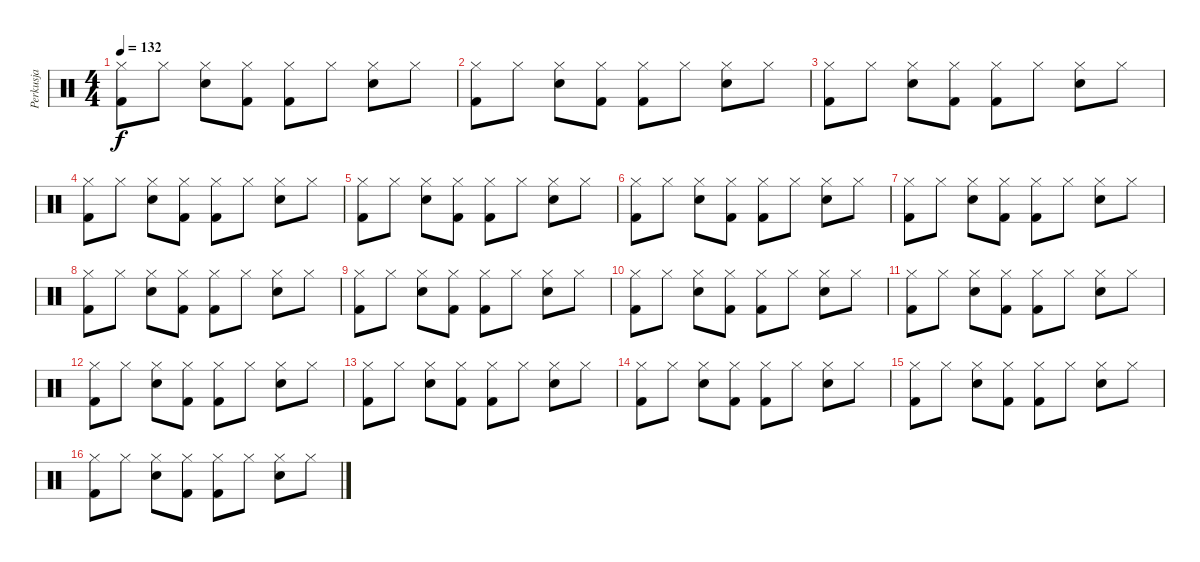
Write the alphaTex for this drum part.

\track ("Perkusja" "Perkusja") {instrument percussion}
\staff {score}
\articulation defaults
\ts (4 4)
\tempo 132
\clef neutral
\ks c
("Kick (hit) 2" "Hi-Hat (closed)").8{dy f} "Hi-Hat (closed)".8 ("Snare (hit) 2" "Hi-Hat (closed)").8 ("Kick (hit) 2" "Hi-Hat (closed)").8 ("Kick (hit) 2" "Hi-Hat (closed)").8 "Hi-Hat (closed)".8 ("Snare (hit) 2" "Hi-Hat (closed)").8 "Hi-Hat (closed)".8 |
("Kick (hit) 2" "Hi-Hat (closed)").8 "Hi-Hat (closed)".8 ("Snare (hit) 2" "Hi-Hat (closed)").8 ("Kick (hit) 2" "Hi-Hat (closed)").8 ("Kick (hit) 2" "Hi-Hat (closed)").8 "Hi-Hat (closed)".8 ("Snare (hit) 2" "Hi-Hat (closed)").8 "Hi-Hat (closed)".8 |
("Kick (hit) 2" "Hi-Hat (closed)").8 "Hi-Hat (closed)".8 ("Snare (hit) 2" "Hi-Hat (closed)").8 ("Kick (hit) 2" "Hi-Hat (closed)").8 ("Kick (hit) 2" "Hi-Hat (closed)").8 "Hi-Hat (closed)".8 ("Snare (hit) 2" "Hi-Hat (closed)").8 "Hi-Hat (closed)".8 |
("Kick (hit) 2" "Hi-Hat (closed)").8 "Hi-Hat (closed)".8 ("Snare (hit) 2" "Hi-Hat (closed)").8 ("Kick (hit) 2" "Hi-Hat (closed)").8 ("Kick (hit) 2" "Hi-Hat (closed)").8 "Hi-Hat (closed)".8 ("Snare (hit) 2" "Hi-Hat (closed)").8 "Hi-Hat (closed)".8 |
("Kick (hit) 2" "Hi-Hat (closed)").8 "Hi-Hat (closed)".8 ("Snare (hit) 2" "Hi-Hat (closed)").8 ("Kick (hit) 2" "Hi-Hat (closed)").8 ("Kick (hit) 2" "Hi-Hat (closed)").8 "Hi-Hat (closed)".8 ("Snare (hit) 2" "Hi-Hat (closed)").8 "Hi-Hat (closed)".8 |
("Kick (hit) 2" "Hi-Hat (closed)").8 "Hi-Hat (closed)".8 ("Snare (hit) 2" "Hi-Hat (closed)").8 ("Kick (hit) 2" "Hi-Hat (closed)").8 ("Kick (hit) 2" "Hi-Hat (closed)").8 "Hi-Hat (closed)".8 ("Snare (hit) 2" "Hi-Hat (closed)").8 "Hi-Hat (closed)".8 |
("Kick (hit) 2" "Hi-Hat (closed)").8 "Hi-Hat (closed)".8 ("Snare (hit) 2" "Hi-Hat (closed)").8 ("Kick (hit) 2" "Hi-Hat (closed)").8 ("Kick (hit) 2" "Hi-Hat (closed)").8 "Hi-Hat (closed)".8 ("Snare (hit) 2" "Hi-Hat (closed)").8 "Hi-Hat (closed)".8 |
("Kick (hit) 2" "Hi-Hat (closed)").8 "Hi-Hat (closed)".8 ("Snare (hit) 2" "Hi-Hat (closed)").8 ("Kick (hit) 2" "Hi-Hat (closed)").8 ("Kick (hit) 2" "Hi-Hat (closed)").8 "Hi-Hat (closed)".8 ("Snare (hit) 2" "Hi-Hat (closed)").8 "Hi-Hat (closed)".8 |
("Kick (hit) 2" "Hi-Hat (closed)").8 "Hi-Hat (closed)".8 ("Snare (hit) 2" "Hi-Hat (closed)").8 ("Kick (hit) 2" "Hi-Hat (closed)").8 ("Kick (hit) 2" "Hi-Hat (closed)").8 "Hi-Hat (closed)".8 ("Snare (hit) 2" "Hi-Hat (closed)").8 "Hi-Hat (closed)".8 |
("Kick (hit) 2" "Hi-Hat (closed)").8 "Hi-Hat (closed)".8 ("Snare (hit) 2" "Hi-Hat (closed)").8 ("Kick (hit) 2" "Hi-Hat (closed)").8 ("Kick (hit) 2" "Hi-Hat (closed)").8 "Hi-Hat (closed)".8 ("Snare (hit) 2" "Hi-Hat (closed)").8 "Hi-Hat (closed)".8 |
("Kick (hit) 2" "Hi-Hat (closed)").8 "Hi-Hat (closed)".8 ("Snare (hit) 2" "Hi-Hat (closed)").8 ("Kick (hit) 2" "Hi-Hat (closed)").8 ("Kick (hit) 2" "Hi-Hat (closed)").8 "Hi-Hat (closed)".8 ("Snare (hit) 2" "Hi-Hat (closed)").8 "Hi-Hat (closed)".8 |
("Kick (hit) 2" "Hi-Hat (closed)").8 "Hi-Hat (closed)".8 ("Snare (hit) 2" "Hi-Hat (closed)").8 ("Kick (hit) 2" "Hi-Hat (closed)").8 ("Kick (hit) 2" "Hi-Hat (closed)").8 "Hi-Hat (closed)".8 ("Snare (hit) 2" "Hi-Hat (closed)").8 "Hi-Hat (closed)".8 |
("Kick (hit) 2" "Hi-Hat (closed)").8 "Hi-Hat (closed)".8 ("Snare (hit) 2" "Hi-Hat (closed)").8 ("Kick (hit) 2" "Hi-Hat (closed)").8 ("Kick (hit) 2" "Hi-Hat (closed)").8 "Hi-Hat (closed)".8 ("Snare (hit) 2" "Hi-Hat (closed)").8 "Hi-Hat (closed)".8 |
("Kick (hit) 2" "Hi-Hat (closed)").8 "Hi-Hat (closed)".8 ("Snare (hit) 2" "Hi-Hat (closed)").8 ("Kick (hit) 2" "Hi-Hat (closed)").8 ("Kick (hit) 2" "Hi-Hat (closed)").8 "Hi-Hat (closed)".8 ("Snare (hit) 2" "Hi-Hat (closed)").8 "Hi-Hat (closed)".8 |
("Kick (hit) 2" "Hi-Hat (closed)").8 "Hi-Hat (closed)".8 ("Snare (hit) 2" "Hi-Hat (closed)").8 ("Kick (hit) 2" "Hi-Hat (closed)").8 ("Kick (hit) 2" "Hi-Hat (closed)").8 "Hi-Hat (closed)".8 ("Snare (hit) 2" "Hi-Hat (closed)").8 "Hi-Hat (closed)".8 |
("Kick (hit) 2" "Hi-Hat (closed)").8 "Hi-Hat (closed)".8 ("Snare (hit) 2" "Hi-Hat (closed)").8 ("Kick (hit) 2" "Hi-Hat (closed)").8 ("Kick (hit) 2" "Hi-Hat (closed)").8 "Hi-Hat (closed)".8 ("Snare (hit) 2" "Hi-Hat (closed)").8 "Hi-Hat (closed)".8
